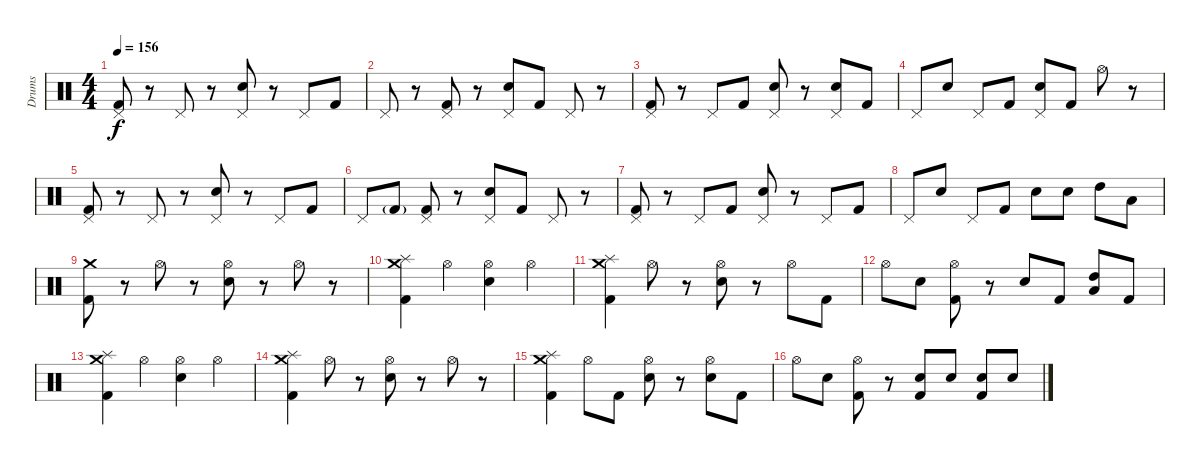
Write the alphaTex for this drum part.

\track ("Drums" "Drums") {instrument percussion}
\staff {score}
\articulation defaults
\ts (4 4)
\tempo 156
\clef neutral
\ks c
("Pedal Hi-Hat (hit)" "Kick (hit) 2").8{dy f} r.8 "Pedal Hi-Hat (hit)".8 r.8 ("Pedal Hi-Hat (hit)" "Electric Snare (hit)").8 r.8 "Pedal Hi-Hat (hit)".8 "Kick (hit) 2".8 |
"Pedal Hi-Hat (hit)".8 r.8 ("Pedal Hi-Hat (hit)" "Kick (hit) 2").8 r.8 ("Pedal Hi-Hat (hit)" "Electric Snare (hit)").8 "Kick (hit) 2".8 "Pedal Hi-Hat (hit)".8 r.8 |
("Pedal Hi-Hat (hit)" "Kick (hit) 2").8 r.8 "Pedal Hi-Hat (hit)".8 "Kick (hit) 2".8 ("Pedal Hi-Hat (hit)" "Electric Snare (hit)").8 r.8 ("Pedal Hi-Hat (hit)" "Electric Snare (hit)").8 "Kick (hit) 2".8 |
"Pedal Hi-Hat (hit)".8 "Electric Snare (hit)".8 "Pedal Hi-Hat (hit)".8 "Kick (hit) 2".8 ("Pedal Hi-Hat (hit)" "Electric Snare (hit)").8 "Kick (hit) 2".8 "Hi-Hat (open)".8 r.8 |
("Pedal Hi-Hat (hit)" "Kick (hit) 2").8 r.8 "Pedal Hi-Hat (hit)".8 r.8 ("Pedal Hi-Hat (hit)" "Electric Snare (hit)").8 r.8 "Pedal Hi-Hat (hit)".8 "Kick (hit) 2".8 |
"Pedal Hi-Hat (hit)".8 "Kick (hit) 2"{g}.8 ("Pedal Hi-Hat (hit)" "Kick (hit) 2").8 r.8 ("Pedal Hi-Hat (hit)" "Electric Snare (hit)").8 "Kick (hit) 2".8 "Pedal Hi-Hat (hit)".8 r.8 |
("Pedal Hi-Hat (hit)" "Kick (hit) 2").8 r.8 "Pedal Hi-Hat (hit)".8 "Kick (hit) 2".8 ("Pedal Hi-Hat (hit)" "Electric Snare (hit)").8 r.8 "Pedal Hi-Hat (hit)".8 "Kick (hit) 2".8 |
"Pedal Hi-Hat (hit)".8 "Electric Snare (hit)".8 "Pedal Hi-Hat (hit)".8 "Kick (hit) 2".8 "Electric Snare (hit)".8 "Electric Snare (hit)".8 "High Tom (hit)".8 "Low Tom (hit)".8 |
("Crash medium (hit)" "Kick (hit) 2").8 r.8 "Hi-Hat (open)".8 r.8 ("Hi-Hat (open)" "Electric Snare (hit)").8 r.8 "Hi-Hat (open)".8 r.8 |
("Crash medium (hit)" "Splash (hit)" "Kick (hit) 2").4 "Hi-Hat (open)".4 ("Hi-Hat (open)" "Electric Snare (hit)").4 "Hi-Hat (open)".4 |
("Crash medium (hit)" "Splash (hit)" "Kick (hit) 2").4 "Hi-Hat (open)".8 r.8 ("Hi-Hat (open)" "Electric Snare (hit)").8 r.8 "Hi-Hat (open)".8 "Kick (hit) 2".8 |
"Hi-Hat (open)".8 "Electric Snare (hit)".8 ("Hi-Hat (open)" "Kick (hit) 2").8 r.8 "Electric Snare (hit)".8 "Kick (hit) 2".8 ("Low Tom (hit)" "High Tom (hit)").8 "Kick (hit) 2".8 |
("Crash medium (hit)" "Splash (hit)" "Kick (hit) 2").4 "Hi-Hat (open)".4 ("Hi-Hat (open)" "Electric Snare (hit)").4 "Hi-Hat (open)".4 |
("Crash medium (hit)" "Splash (hit)" "Kick (hit) 2").4 "Hi-Hat (open)".8 r.8 ("Hi-Hat (open)" "Electric Snare (hit)").8 r.8 "Hi-Hat (open)".8 r.8 |
("Crash medium (hit)" "Splash (hit)" "Kick (hit) 2").4 "Hi-Hat (open)".8 "Kick (hit) 2".8 ("Hi-Hat (open)" "Electric Snare (hit)").8 r.8 ("Hi-Hat (open)" "Electric Snare (hit)").8 "Kick (hit) 2".8 |
"Hi-Hat (open)".8 "Electric Snare (hit)".8 ("Hi-Hat (open)" "Kick (hit) 2").8 r.8 ("Electric Snare (hit)" "Kick (hit) 2").8 "Electric Snare (hit)".8 ("Electric Snare (hit)" "Kick (hit) 2").8 "Electric Snare (hit)".8
